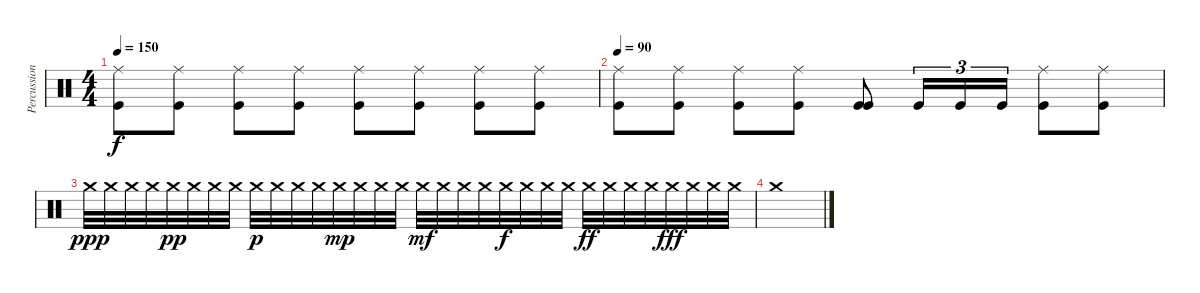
\track ("Percussioni" "Percussion") {instrument percussion}
\staff {score}
\articulation defaults
\ts (4 4)
\tempo 150
\clef neutral
\ks c
("Ride (middle)" "Kick (hit)").8{dy f} ("Ride (middle)" "Kick (hit)").8 ("Ride (middle)" "Kick (hit)").8 ("Ride (middle)" "Kick (hit)").8 ("Ride (middle)" "Kick (hit)").8 ("Ride (middle)" "Kick (hit)").8 ("Ride (middle)" "Kick (hit)").8 ("Ride (middle)" "Kick (hit)").8 |
\tempo 90
("Ride (middle)" "Kick (hit)").8 ("Ride (middle)" "Kick (hit)").8 ("Ride (middle)" "Kick (hit)").8 ("Ride (middle)" "Kick (hit)").8 ("Kick (hit)" "Kick (hit)").8 "Kick (hit)".16{tu (3 2)} "Kick (hit)".16{tu (3 2)} "Kick (hit)".16{tu (3 2)} ("Ride (middle)" "Kick (hit)").8 ("Ride (middle)" "Kick (hit)").8 |
"Crash medium (hit)".32{dy ppp volume 16} "Crash medium (hit)".32 "Crash medium (hit)".32 "Crash medium (hit)".32 "Crash medium (hit)".32{dy pp} "Crash medium (hit)".32 "Crash medium (hit)".32 "Crash medium (hit)".32 "Crash medium (hit)".32{dy p} "Crash medium (hit)".32 "Crash medium (hit)".32 "Crash medium (hit)".32 "Crash medium (hit)".32{dy mp} "Crash medium (hit)".32 "Crash medium (hit)".32 "Crash medium (hit)".32 "Crash medium (hit)".32{dy mf} "Crash medium (hit)".32 "Crash medium (hit)".32 "Crash medium (hit)".32 "Crash medium (hit)".32{dy f} "Crash medium (hit)".32 "Crash medium (hit)".32 "Crash medium (hit)".32 "Crash medium (hit)".32{dy ff} "Crash medium (hit)".32 "Crash medium (hit)".32 "Crash medium (hit)".32 "Crash medium (hit)".32{dy fff} "Crash medium (hit)".32 "Crash medium (hit)".32 "Crash medium (hit)".32 |
"Crash medium (hit)".1
